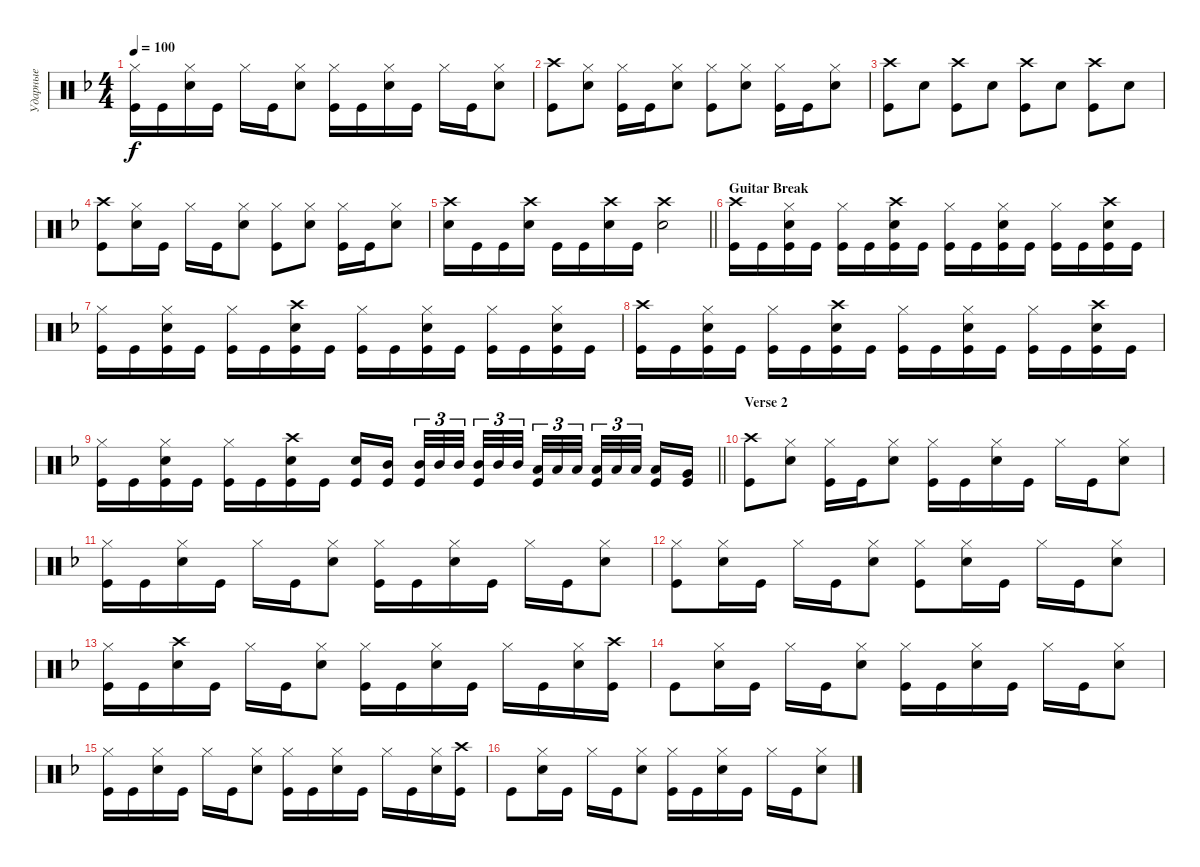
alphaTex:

\track ("Ударные" "Ударные") {instrument percussion}
\staff {score}
\articulation defaults
\ts (4 4)
\tempo 100
\clef neutral
\ks dminor
("Kick (hit)" "Hi-Hat (closed)").16{dy f} "Kick (hit)".16 ("Snare (hit) 2" "Hi-Hat (closed)").16 "Kick (hit)".16 "Hi-Hat (closed)".16 "Kick (hit)".16 ("Snare (hit) 2" "Hi-Hat (closed)").8 ("Kick (hit)" "Hi-Hat (closed)").16 "Kick (hit)".16 ("Snare (hit) 2" "Hi-Hat (closed)").16 "Kick (hit)".16 "Hi-Hat (closed)".16 "Kick (hit)".16 ("Snare (hit) 2" "Hi-Hat (closed)").8 |
("Kick (hit)" "Crash high (hit)").8 ("Snare (hit) 2" "Hi-Hat (closed)").8 ("Kick (hit)" "Hi-Hat (closed)").16 "Kick (hit)".16 ("Snare (hit) 2" "Hi-Hat (closed)").8 ("Kick (hit)" "Hi-Hat (closed)").8 ("Snare (hit) 2" "Hi-Hat (closed)").8 ("Kick (hit)" "Hi-Hat (closed)").16 "Kick (hit)".16 ("Snare (hit) 2" "Hi-Hat (closed)").8 |
("Kick (hit)" "Crash high (hit)").8 "Snare (hit) 2".8 ("Kick (hit)" "Crash high (hit)").8 "Snare (hit) 2".8 ("Kick (hit)" "Crash high (hit)").8 "Snare (hit) 2".8 ("Kick (hit)" "Crash high (hit)").8 "Snare (hit) 2".8 |
("Kick (hit)" "Crash high (hit)").8 ("Snare (hit) 2" "Hi-Hat (closed)").16 "Kick (hit)".16 "Hi-Hat (closed)".16 "Kick (hit)".16 ("Snare (hit) 2" "Hi-Hat (closed)").8 ("Kick (hit)" "Hi-Hat (closed)").8 ("Snare (hit) 2" "Hi-Hat (closed)").8 ("Kick (hit)" "Hi-Hat (closed)").16 "Kick (hit)".16 ("Snare (hit) 2" "Hi-Hat (closed)").8 |
\barLineRight lightlight
("Snare (hit) 2" "Crash high (hit)").16 "Kick (hit)".16 "Kick (hit)".16 ("Snare (hit) 2" "Crash high (hit)").16 "Kick (hit)".16 "Kick (hit)".16 ("Snare (hit) 2" "Crash high (hit)").16 "Kick (hit)".16 ("Snare (hit) 2" "Crash high (hit)").2 |
\section ("" "Guitar Break")
("Kick (hit)" "Crash high (hit)").16 "Kick (hit)".16 ("Kick (hit)" "Snare (hit) 2" "Hi-Hat (closed)").16 "Kick (hit)".16 ("Kick (hit)" "Hi-Hat (closed)").16 "Kick (hit)".16 ("Kick (hit)" "Snare (hit) 2" "Crash high (hit)").16 "Kick (hit)".16 ("Kick (hit)" "Hi-Hat (closed)").16 "Kick (hit)".16 ("Kick (hit)" "Snare (hit) 2" "Hi-Hat (closed)").16 "Kick (hit)".16 ("Kick (hit)" "Hi-Hat (closed)").16 "Kick (hit)".16 ("Kick (hit)" "Snare (hit) 2" "Crash high (hit)").16 "Kick (hit)".16 |
("Kick (hit)" "Hi-Hat (closed)").16 "Kick (hit)".16 ("Kick (hit)" "Snare (hit) 2" "Hi-Hat (closed)").16 "Kick (hit)".16 ("Kick (hit)" "Hi-Hat (closed)").16 "Kick (hit)".16 ("Kick (hit)" "Snare (hit) 2" "Crash high (hit)").16 "Kick (hit)".16 ("Kick (hit)" "Hi-Hat (closed)").16 "Kick (hit)".16 ("Kick (hit)" "Snare (hit) 2" "Hi-Hat (closed)").16 "Kick (hit)".16 ("Kick (hit)" "Hi-Hat (closed)").16 "Kick (hit)".16 ("Kick (hit)" "Snare (hit) 2" "Hi-Hat (closed)").16 "Kick (hit)".16 |
("Kick (hit)" "Crash high (hit)").16 "Kick (hit)".16 ("Kick (hit)" "Snare (hit) 2" "Hi-Hat (closed)").16 "Kick (hit)".16 ("Kick (hit)" "Hi-Hat (closed)").16 "Kick (hit)".16 ("Kick (hit)" "Snare (hit) 2" "Crash high (hit)").16 "Kick (hit)".16 ("Kick (hit)" "Hi-Hat (closed)").16 "Kick (hit)".16 ("Kick (hit)" "Snare (hit) 2" "Hi-Hat (closed)").16 "Kick (hit)".16 ("Kick (hit)" "Hi-Hat (closed)").16 "Kick (hit)".16 ("Kick (hit)" "Snare (hit) 2" "Crash high (hit)").16 "Kick (hit)".16 |
\barLineRight lightlight
("Kick (hit)" "Hi-Hat (closed)").16 "Kick (hit)".16 ("Kick (hit)" "Snare (hit) 2" "Hi-Hat (closed)").16 "Kick (hit)".16 ("Kick (hit)" "Hi-Hat (closed)").16 "Kick (hit)".16 ("Kick (hit)" "Snare (hit) 2" "Crash high (hit)").16 "Kick (hit)".16 ("Kick (hit)" "Snare (hit) 2").16 ("Kick (hit)" "Mid Tom (hit)").16{beam splitsecondary} ("Kick (hit)" "Mid Tom (hit)").32{tu (3 2)} "Mid Tom (hit)".32{tu (3 2)} "Mid Tom (hit)".32{tu (3 2) beam splitsecondary} ("Kick (hit)" "Mid Tom (hit)").32{tu (3 2)} "Mid Tom (hit)".32{tu (3 2)} "Mid Tom (hit)".32{tu (3 2)} ("Kick (hit)" "Low Tom (hit)").32{tu (3 2)} "Low Tom (hit)".32{tu (3 2)} "Low Tom (hit)".32{tu (3 2) beam splitsecondary} ("Kick (hit)" "Low Tom (hit)").32{tu (3 2)} "Low Tom (hit)".32{tu (3 2)} "Low Tom (hit)".32{tu (3 2) beam splitsecondary} ("Kick (hit)" "Low Tom (hit)").16 ("Kick (hit)" "Very Low Tom (hit)").16 |
\section ("" "Verse 2")
("Kick (hit)" "Crash high (hit)").8 ("Snare (hit) 2" "Hi-Hat (closed)").8 ("Kick (hit)" "Hi-Hat (closed)").16 "Kick (hit)".16 ("Snare (hit) 2" "Hi-Hat (closed)").8 ("Kick (hit)" "Hi-Hat (closed)").16 "Kick (hit)".16 ("Snare (hit) 2" "Hi-Hat (closed)").16 "Kick (hit)".16 "Hi-Hat (closed)".16 "Kick (hit)".16 ("Snare (hit) 2" "Hi-Hat (closed)").8 |
("Kick (hit)" "Hi-Hat (closed)").16 "Kick (hit)".16 ("Snare (hit) 2" "Hi-Hat (closed)").16 "Kick (hit)".16 "Hi-Hat (closed)".16 "Kick (hit)".16 ("Snare (hit) 2" "Hi-Hat (closed)").8 ("Kick (hit)" "Hi-Hat (closed)").16 "Kick (hit)".16 ("Snare (hit) 2" "Hi-Hat (closed)").16 "Kick (hit)".16 "Hi-Hat (closed)".16 "Kick (hit)".16 ("Snare (hit) 2" "Hi-Hat (closed)").8 |
("Kick (hit)" "Hi-Hat (closed)").8 ("Snare (hit) 2" "Hi-Hat (closed)").16 "Kick (hit)".16 "Hi-Hat (closed)".16 "Kick (hit)".16 ("Snare (hit) 2" "Hi-Hat (closed)").8 ("Kick (hit)" "Hi-Hat (closed)").8 ("Snare (hit) 2" "Hi-Hat (closed)").16 "Kick (hit)".16 "Hi-Hat (closed)".16 "Kick (hit)".16 ("Snare (hit) 2" "Hi-Hat (closed)").8 |
("Kick (hit)" "Hi-Hat (closed)").16 "Kick (hit)".16 ("Snare (hit) 2" "Crash high (hit)").16 "Kick (hit)".16 "Hi-Hat (closed)".16 "Kick (hit)".16 ("Snare (hit) 2" "Hi-Hat (closed)").8 ("Kick (hit)" "Hi-Hat (closed)").16 "Kick (hit)".16 ("Snare (hit) 2" "Hi-Hat (closed)").16 "Kick (hit)".16 "Hi-Hat (closed)".16 "Kick (hit)".16 ("Snare (hit) 2" "Hi-Hat (closed)").16 ("Kick (hit)" "Crash high (hit)").16 |
"Kick (hit)".8 ("Snare (hit) 2" "Hi-Hat (closed)").16 "Kick (hit)".16 "Hi-Hat (closed)".16 "Kick (hit)".16 ("Snare (hit) 2" "Hi-Hat (closed)").8 ("Kick (hit)" "Hi-Hat (closed)").16 "Kick (hit)".16 ("Snare (hit) 2" "Hi-Hat (closed)").16 "Kick (hit)".16 "Hi-Hat (closed)".16 "Kick (hit)".16 ("Snare (hit) 2" "Hi-Hat (closed)").8 |
("Kick (hit)" "Hi-Hat (closed)").16 "Kick (hit)".16 ("Snare (hit) 2" "Hi-Hat (closed)").16 "Kick (hit)".16 "Hi-Hat (closed)".16 "Kick (hit)".16 ("Snare (hit) 2" "Hi-Hat (closed)").8 ("Kick (hit)" "Hi-Hat (closed)").16 "Kick (hit)".16 ("Snare (hit) 2" "Hi-Hat (closed)").16 "Kick (hit)".16 "Hi-Hat (closed)".16 "Kick (hit)".16 ("Snare (hit) 2" "Hi-Hat (closed)").16 ("Kick (hit)" "Crash high (hit)").16 |
"Kick (hit)".8 ("Snare (hit) 2" "Hi-Hat (closed)").16 "Kick (hit)".16 "Hi-Hat (closed)".16 "Kick (hit)".16 ("Snare (hit) 2" "Hi-Hat (closed)").8 ("Kick (hit)" "Hi-Hat (closed)").16 "Kick (hit)".16 ("Snare (hit) 2" "Hi-Hat (closed)").16 "Kick (hit)".16 "Hi-Hat (closed)".16 "Kick (hit)".16 ("Snare (hit) 2" "Hi-Hat (closed)").8
